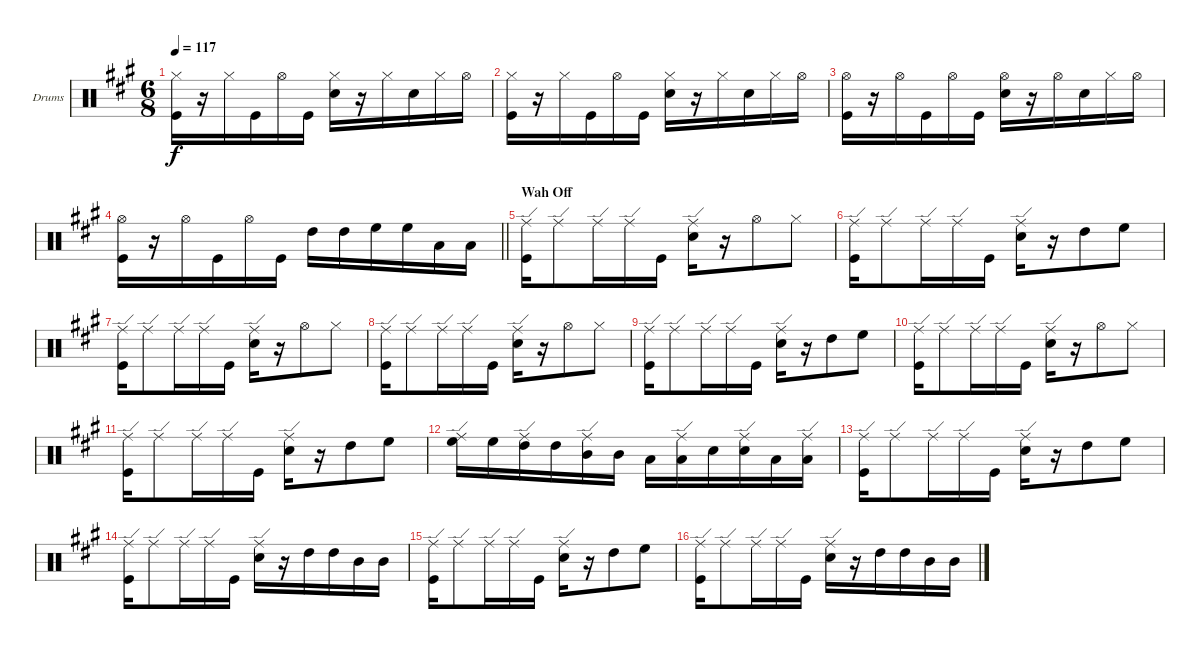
\bracketExtendMode groupsimilarinstruments
\firstSystemTrackNameOrientation horizontal
\otherSystemsTrackNameOrientation horizontal
\track ("Drumkit" "Drums") {instrument percussion}
\staff {score}
\articulation defaults
\ts (6 8)
\tempo 117
\clef neutral
\ks a
("Hi-Hat (closed)" "Kick (hit)").16{dy f} r.16 "Hi-Hat (closed)".16 "Kick (hit)".16 "Hi-Hat (open)".16 "Kick (hit)".16 ("Hi-Hat (closed)" "Snare (hit) 2").16 r.16 "Hi-Hat (closed)".16 "Snare (hit) 2".16 "Hi-Hat (closed)".16 "Hi-Hat (open)".16 |
("Hi-Hat (closed)" "Kick (hit)").16 r.16 "Hi-Hat (closed)".16 "Kick (hit)".16 "Hi-Hat (open)".16 "Kick (hit)".16 ("Hi-Hat (closed)" "Snare (hit) 2").16 r.16 "Hi-Hat (closed)".16 "Snare (hit) 2".16 "Hi-Hat (closed)".16 "Hi-Hat (open)".16 |
("Hi-Hat (open)" "Kick (hit)").16 r.16 "Hi-Hat (open)".16 "Kick (hit)".16 "Hi-Hat (open)".16 "Kick (hit)".16 ("Hi-Hat (open)" "Snare (hit) 2").16 r.16 "Hi-Hat (open)".16 "Snare (hit) 2".16 "Hi-Hat (closed)".16 "Hi-Hat (open)".16 |
\barLineRight lightlight
("Hi-Hat (open)" "Kick (hit)").16 r.16 "Hi-Hat (open)".16 "Kick (hit)".16 "Hi-Hat (open)".16 "Kick (hit)".16 "High Tom (hit)".16 "High Tom (hit)".16 "High Floor Tom (hit)".16 "High Floor Tom (hit)".16 "Low Tom (hit)".16 "Low Tom (hit)".16 |
\section ("" "Wah Off")
("Ride (edge)" "Kick (hit)").16 "Ride (edge)".8 "Ride (edge)".16 "Ride (edge)".16 "Kick (hit)".16 ("Ride (edge)" "Snare (hit) 2").16 r.16 "Hi-Hat (open)".8 "Hi-Hat (closed)".8 |
("Ride (edge)" "Kick (hit)").16 "Ride (edge)".8 "Ride (edge)".16 "Ride (edge)".16 "Kick (hit)".16 ("Ride (edge)" "Snare (hit) 2").16 r.16 "High Tom (hit)".8 "High Floor Tom (hit)".8 |
("Ride (edge)" "Kick (hit)").16 "Ride (edge)".8 "Ride (edge)".16 "Ride (edge)".16 "Kick (hit)".16 ("Ride (edge)" "Snare (hit) 2").16 r.16 "Hi-Hat (open)".8 "Hi-Hat (closed)".8 |
("Ride (edge)" "Kick (hit)").16 "Ride (edge)".8 "Ride (edge)".16 "Ride (edge)".16 "Kick (hit)".16 ("Ride (edge)" "Snare (hit) 2").16 r.16 "Hi-Hat (open)".8 "Hi-Hat (closed)".8 |
("Ride (edge)" "Kick (hit)").16 "Ride (edge)".8 "Ride (edge)".16 "Ride (edge)".16 "Kick (hit)".16 ("Ride (edge)" "Snare (hit) 2").16 r.16 "High Tom (hit)".8 "High Floor Tom (hit)".8 |
("Ride (edge)" "Kick (hit)").16 "Ride (edge)".8 "Ride (edge)".16 "Ride (edge)".16 "Kick (hit)".16 ("Ride (edge)" "Snare (hit) 2").16 r.16 "Hi-Hat (open)".8 "Hi-Hat (closed)".8 |
("Ride (edge)" "Kick (hit)").16 "Ride (edge)".8 "Ride (edge)".16 "Ride (edge)".16 "Kick (hit)".16 ("Ride (edge)" "Snare (hit) 2").16 r.16 "High Tom (hit)".8 "High Floor Tom (hit)".8 |
("Ride (edge)" "High Floor Tom (hit)").16 "High Floor Tom (hit)".16 ("Ride (edge)" "High Tom (hit)").16 "High Tom (hit)".16 ("Ride (edge)" "Mid Tom (hit)").16 "Mid Tom (hit)".16 "Low Tom (hit)".16 ("Ride (edge)" "Low Tom (hit)").16 "Snare (hit) 2".16 ("Ride (edge)" "Snare (hit) 2").16 "Low Tom (hit)".16 ("Ride (edge)" "Low Tom (hit)").16 |
("Ride (edge)" "Kick (hit)").16 "Ride (edge)".8 "Ride (edge)".16 "Ride (edge)".16 "Kick (hit)".16 ("Ride (edge)" "Snare (hit) 2").16 r.16 "High Tom (hit)".8 "High Floor Tom (hit)".8 |
("Ride (edge)" "Kick (hit)").16 "Ride (edge)".8 "Ride (edge)".16 "Ride (edge)".16 "Kick (hit)".16 ("Ride (edge)" "Snare (hit) 2").16 r.16 "High Tom (hit)".16 "High Tom (hit)".16 "Mid Tom (hit)".16 "Mid Tom (hit)".16 |
("Ride (edge)" "Kick (hit)").16 "Ride (edge)".8 "Ride (edge)".16 "Ride (edge)".16 "Kick (hit)".16 ("Ride (edge)" "Snare (hit) 2").16 r.16 "High Tom (hit)".8 "High Floor Tom (hit)".8 |
("Ride (edge)" "Kick (hit)").16 "Ride (edge)".8 "Ride (edge)".16 "Ride (edge)".16 "Kick (hit)".16 ("Ride (edge)" "Snare (hit) 2").16 r.16 "High Tom (hit)".16 "High Tom (hit)".16 "Mid Tom (hit)".16 "Mid Tom (hit)".16
